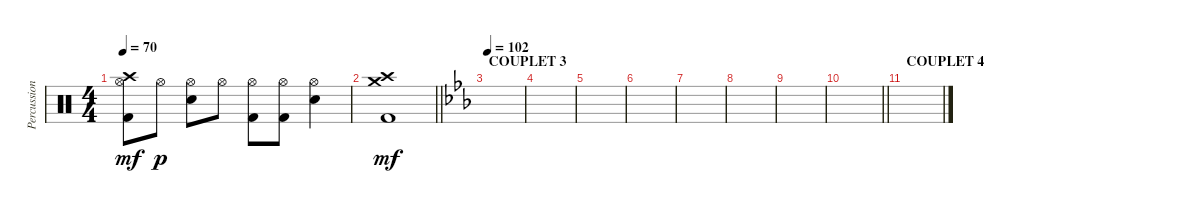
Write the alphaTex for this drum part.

\track ("Percussions" "Percussion") {instrument percussion}
\staff {score}
\articulation defaults
\ts (4 4)
\tempo 70
\clef neutral
\ks c
("Kick (hit) 2" "Hi-Hat (open)" "Crash high (hit)").8{dy mf} "Hi-Hat (open)".8{dy p} ("Snare (hit) 2" "Hi-Hat (open)").8 "Hi-Hat (open)".8 ("Kick (hit) 2" "Hi-Hat (open)").8 ("Kick (hit) 2" "Hi-Hat (open)").8 ("Snare (hit) 2" "Hi-Hat (open)").4 |
\barLineRight lightlight
("Kick (hit) 2" "Crash high (hit)" "Crash medium (hit)").1{dy mf} |
\section ("" "COUPLET 3")
\tempo 102
\ks eb
|
|
|
|
|
|
|
\barLineRight lightlight
|
\section ("" "COUPLET 4")
